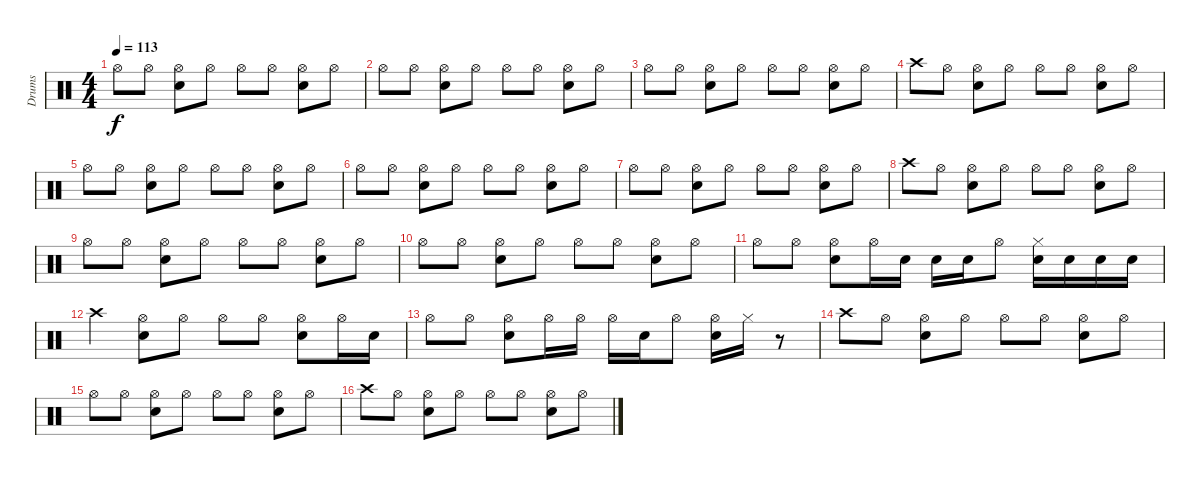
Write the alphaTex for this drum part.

\track ("Drums" "Drums") {instrument percussion}
\staff {score}
\articulation defaults
\ts (4 4)
\tempo 113
\clef neutral
\ks c "Hi-Hat (open)".8{dy f} "Hi-Hat (open)".8
("Hi-Hat (open)" "Snare (hit) 2").8 "Hi-Hat (open)".8 "Hi-Hat (open)".8 "Hi-Hat (open)".8 ("Hi-Hat (open)" "Snare (hit) 2").8 "Hi-Hat (open)".8 |
"Hi-Hat (open)".8 "Hi-Hat (open)".8 ("Hi-Hat (open)" "Snare (hit) 2").8 "Hi-Hat (open)".8 "Hi-Hat (open)".8 "Hi-Hat (open)".8 ("Hi-Hat (open)" "Snare (hit) 2").8 "Hi-Hat (open)".8 |
"Hi-Hat (open)".8 "Hi-Hat (open)".8 ("Hi-Hat (open)" "Snare (hit) 2").8 "Hi-Hat (open)".8 "Hi-Hat (open)".8 "Hi-Hat (open)".8 ("Hi-Hat (open)" "Snare (hit) 2").8 "Hi-Hat (open)".8 |
"Crash high (hit)".8 "Hi-Hat (open)".8 ("Hi-Hat (open)" "Snare (hit) 2").8 "Hi-Hat (open)".8 "Hi-Hat (open)".8 "Hi-Hat (open)".8 ("Hi-Hat (open)" "Snare (hit) 2").8 "Hi-Hat (open)".8 |
"Hi-Hat (open)".8 "Hi-Hat (open)".8 ("Hi-Hat (open)" "Snare (hit) 2").8 "Hi-Hat (open)".8 "Hi-Hat (open)".8 "Hi-Hat (open)".8 ("Hi-Hat (open)" "Snare (hit) 2").8 "Hi-Hat (open)".8 |
"Hi-Hat (open)".8 "Hi-Hat (open)".8 ("Hi-Hat (open)" "Snare (hit) 2").8 "Hi-Hat (open)".8 "Hi-Hat (open)".8 "Hi-Hat (open)".8 ("Hi-Hat (open)" "Snare (hit) 2").8 "Hi-Hat (open)".8 |
"Hi-Hat (open)".8 "Hi-Hat (open)".8 ("Hi-Hat (open)" "Snare (hit) 2").8 "Hi-Hat (open)".8 "Hi-Hat (open)".8 "Hi-Hat (open)".8 ("Hi-Hat (open)" "Snare (hit) 2").8 "Hi-Hat (open)".8 |
"Crash high (hit)".8 "Hi-Hat (open)".8 ("Hi-Hat (open)" "Snare (hit) 2").8 "Hi-Hat (open)".8 "Hi-Hat (open)".8 "Hi-Hat (open)".8 ("Hi-Hat (open)" "Snare (hit) 2").8 "Hi-Hat (open)".8 |
"Hi-Hat (open)".8 "Hi-Hat (open)".8 ("Hi-Hat (open)" "Snare (hit) 2").8 "Hi-Hat (open)".8 "Hi-Hat (open)".8 "Hi-Hat (open)".8 ("Hi-Hat (open)" "Snare (hit) 2").8 "Hi-Hat (open)".8 |
"Hi-Hat (open)".8 "Hi-Hat (open)".8 ("Hi-Hat (open)" "Snare (hit) 2").8 "Hi-Hat (open)".8 "Hi-Hat (open)".8 "Hi-Hat (open)".8 ("Hi-Hat (open)" "Snare (hit) 2").8 "Hi-Hat (open)".8 |
"Hi-Hat (open)".8 "Hi-Hat (open)".8 ("Hi-Hat (open)" "Snare (hit) 2").8 "Hi-Hat (open)".16 "Snare (hit) 2".16 "Snare (hit) 2".16 "Snare (hit) 2".16 "Hi-Hat (open)".8 ("Hi-Hat (closed)" "Snare (hit) 2").16 "Snare (hit) 2".16 "Snare (hit) 2".16 "Snare (hit) 2".16 |
"Crash high (hit)".4 ("Hi-Hat (open)" "Snare (hit) 2").8 "Hi-Hat (open)".8 "Hi-Hat (open)".8 "Hi-Hat (open)".8 ("Hi-Hat (open)" "Snare (hit) 2").8 "Hi-Hat (open)".16 "Snare (hit) 2".16 |
"Hi-Hat (open)".8 "Hi-Hat (open)".8 ("Hi-Hat (open)" "Snare (hit) 2").8 "Hi-Hat (open)".16 "Hi-Hat (open)".16 "Hi-Hat (open)".16 "Snare (hit) 2".16 "Hi-Hat (open)".8 ("Hi-Hat (open)" "Snare (hit) 2").16 "Hi-Hat (closed)".16 r.8 |
"Crash high (hit)".8 "Hi-Hat (open)".8 ("Hi-Hat (open)" "Snare (hit) 2").8 "Hi-Hat (open)".8 "Hi-Hat (open)".8 "Hi-Hat (open)".8 ("Hi-Hat (open)" "Snare (hit) 2").8 "Hi-Hat (open)".8 |
"Hi-Hat (open)".8 "Hi-Hat (open)".8 ("Hi-Hat (open)" "Snare (hit) 2").8 "Hi-Hat (open)".8 "Hi-Hat (open)".8 "Hi-Hat (open)".8 ("Hi-Hat (open)" "Snare (hit) 2").8 "Hi-Hat (open)".8 |
"Crash high (hit)".8 "Hi-Hat (open)".8 ("Hi-Hat (open)" "Snare (hit) 2").8 "Hi-Hat (open)".8 "Hi-Hat (open)".8 "Hi-Hat (open)".8 ("Hi-Hat (open)" "Snare (hit) 2").8 "Hi-Hat (open)".8
